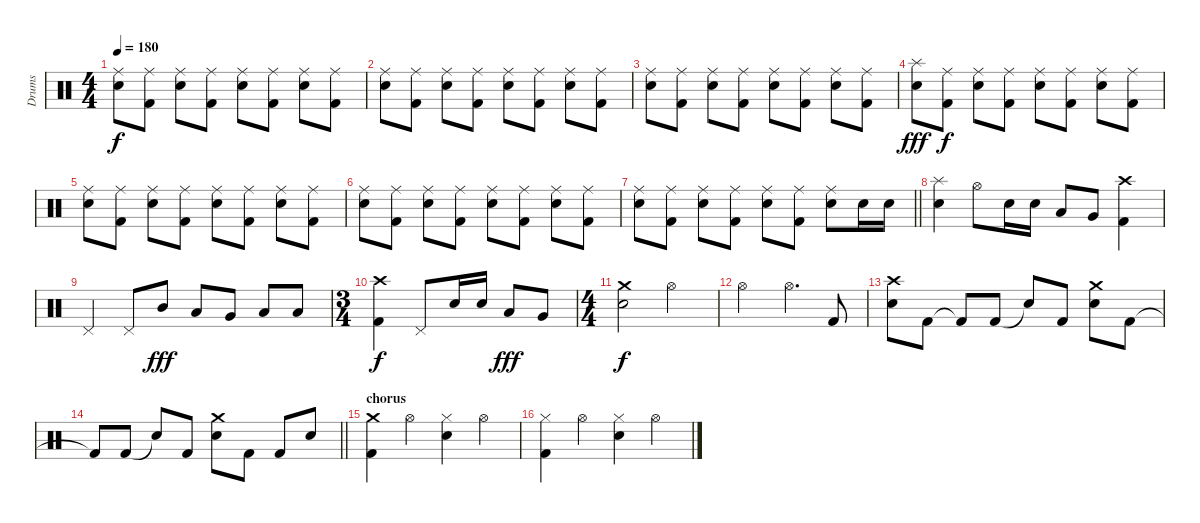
\track ("Drums" "Drums") {instrument percussion}
\staff {score}
\articulation defaults
\ts (4 4)
\tempo 180
\clef neutral
\ks c
("Ride (middle)" "Snare (hit) 2").8{dy f} ("Kick (hit) 2" "Ride (middle)").8 ("Ride (middle)" "Snare (hit) 2").8 ("Kick (hit) 2" "Ride (middle)").8 ("Ride (middle)" "Snare (hit) 2").8 ("Kick (hit) 2" "Ride (middle)").8 ("Ride (middle)" "Snare (hit) 2").8 ("Kick (hit) 2" "Ride (middle)").8 |
("Ride (middle)" "Snare (hit) 2").8 ("Kick (hit) 2" "Ride (middle)").8 ("Ride (middle)" "Snare (hit) 2").8 ("Kick (hit) 2" "Ride (middle)").8 ("Ride (middle)" "Snare (hit) 2").8 ("Kick (hit) 2" "Ride (middle)").8 ("Ride (middle)" "Snare (hit) 2").8 ("Kick (hit) 2" "Ride (middle)").8 |
("Ride (middle)" "Snare (hit) 2").8 ("Kick (hit) 2" "Ride (middle)").8 ("Ride (middle)" "Snare (hit) 2").8 ("Kick (hit) 2" "Ride (middle)").8 ("Ride (middle)" "Snare (hit) 2").8 ("Kick (hit) 2" "Ride (middle)").8 ("Ride (middle)" "Snare (hit) 2").8 ("Kick (hit) 2" "Ride (middle)").8 |
("Splash (hit)" "Snare (hit) 2").8{dy fff} ("Kick (hit) 2" "Ride (middle)").8{dy f} ("Ride (middle)" "Snare (hit) 2").8 ("Kick (hit) 2" "Ride (middle)").8 ("Ride (middle)" "Snare (hit) 2").8 ("Kick (hit) 2" "Ride (middle)").8 ("Ride (middle)" "Snare (hit) 2").8 ("Kick (hit) 2" "Ride (middle)").8 |
("Ride (middle)" "Snare (hit) 2").8 ("Kick (hit) 2" "Ride (middle)").8 ("Ride (middle)" "Snare (hit) 2").8 ("Kick (hit) 2" "Ride (middle)").8 ("Ride (middle)" "Snare (hit) 2").8 ("Kick (hit) 2" "Ride (middle)").8 ("Ride (middle)" "Snare (hit) 2").8 ("Kick (hit) 2" "Ride (middle)").8 |
("Ride (middle)" "Snare (hit) 2").8 ("Kick (hit) 2" "Ride (middle)").8 ("Ride (middle)" "Snare (hit) 2").8 ("Kick (hit) 2" "Ride (middle)").8 ("Ride (middle)" "Snare (hit) 2").8 ("Kick (hit) 2" "Ride (middle)").8 ("Ride (middle)" "Snare (hit) 2").8 ("Kick (hit) 2" "Ride (middle)").8 |
\barLineRight lightlight
("Ride (middle)" "Snare (hit) 2").8 ("Kick (hit) 2" "Ride (middle)").8 ("Ride (middle)" "Snare (hit) 2").8 ("Kick (hit) 2" "Ride (middle)").8 ("Ride (middle)" "Snare (hit) 2").8 ("Kick (hit) 2" "Ride (middle)").8 ("Ride (middle)" "Snare (hit) 2").8 "Snare (hit) 2".16 "Snare (hit) 2".16 |
("Splash (hit)" "Snare (hit) 2").4 "Hi-Hat (open)".8 "Snare (hit) 2".16 "Snare (hit) 2".16 "Low Tom (hit)".8 "Very Low Tom (hit)".8 ("Kick (hit) 2" "Crash high (hit)").4 |
"Pedal Hi-Hat (hit)".4 "Pedal Hi-Hat (hit)".8 "Mid Tom (hit)".8{dy fff} "Low Tom (hit)".8 "Very Low Tom (hit)".8 "Low Floor Tom (hit)".8 "Low Floor Tom (hit)".8 |
\ts (3 4)
("Kick (hit) 2" "Crash high (hit)").4{dy f} "Pedal Hi-Hat (hit)".8 "Snare (hit) 2".16 "Snare (hit) 2".16 "Low Tom (hit)".8{dy fff} "Very Low Tom (hit)".8 |
\ts (4 4)
("Crash medium (hit)" "Snare (hit) 2").2{dy f} "Hi-Hat (open)".2 |
"Hi-Hat (open)".2 "Hi-Hat (open)".4{d} "Kick (hit) 2".8 |
("Crash high (hit)" "Snare (hit) 2").8 "Kick (hit) 2".8 "Kick (hit) 2"{t}.8 "Kick (hit) 2".8 "Snare (hit)"{t}.8 "Kick (hit) 2".8 ("Crash medium (hit)" "Snare (hit) 2").8 "Kick (hit) 2".8 |
\barLineRight lightlight "Kick (hit) 2"{t}.8 "Kick (hit) 2".8 "Snare (hit)"{t}.8 "Kick (hit) 2".8
("Crash medium (hit)" "Snare (hit) 2").8 "Kick (hit) 2".8 "Kick (hit) 2".8 "Snare (hit) 2".8 |
\section ("" "chorus")
("Kick (hit) 2" "Crash medium (hit)").4 "Hi-Hat (open)".4 ("Hi-Hat (closed)" "Snare (hit) 2").4 "Hi-Hat (open)".4 |
("Kick (hit) 2" "Hi-Hat (closed)").4 "Hi-Hat (open)".4 ("Hi-Hat (closed)" "Snare (hit) 2").4 "Hi-Hat (open)".4
